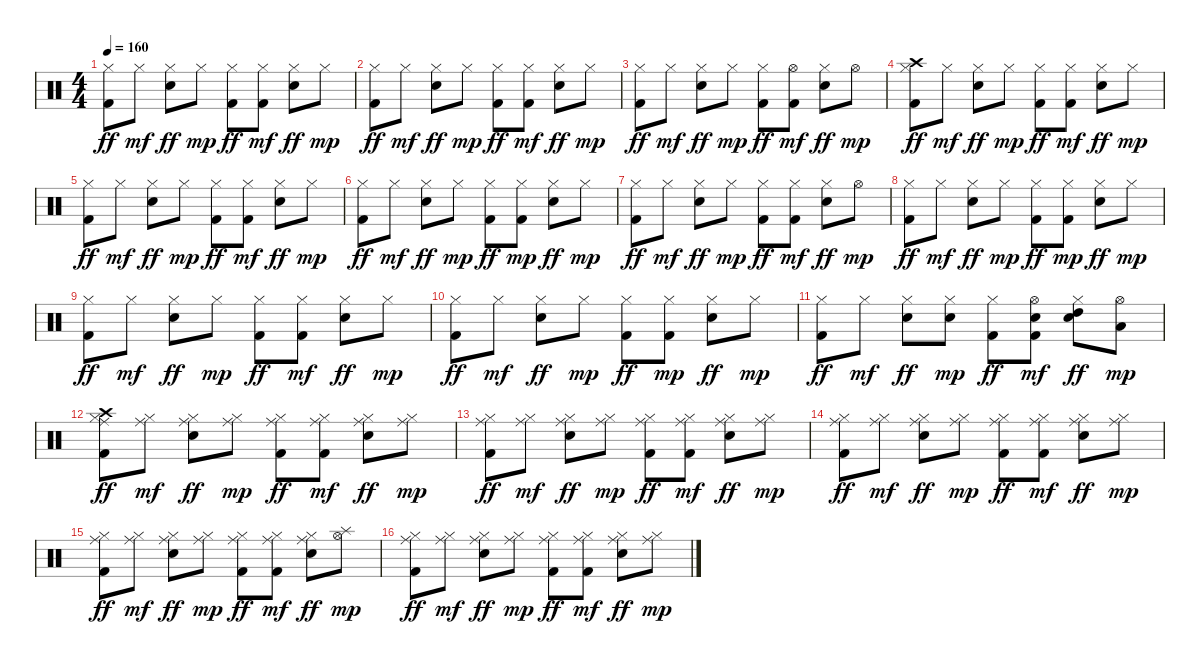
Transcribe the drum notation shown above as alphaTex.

\track "" {instrument percussion}
\staff {score}
\articulation defaults
\ts (4 4)
\tempo 160
\clef neutral
\ks c
("Hi-Hat (closed)" "Kick (hit) 2").8{dy ff} "Hi-Hat (closed)".8{dy mf} ("Snare (hit) 2" "Hi-Hat (closed)").8{dy ff} "Hi-Hat (closed)".8{dy mp} ("Hi-Hat (closed)" "Kick (hit) 2").8{dy ff} ("Hi-Hat (closed)" "Kick (hit) 2").8{dy mf} ("Hi-Hat (closed)" "Snare (hit) 2").8{dy ff} "Hi-Hat (closed)".8{dy mp} |
("Kick (hit) 2" "Hi-Hat (closed)").8{dy ff} "Hi-Hat (closed)".8{dy mf} ("Snare (hit) 2" "Hi-Hat (closed)").8{dy ff} "Hi-Hat (closed)".8{dy mp} ("Hi-Hat (closed)" "Kick (hit) 2").8{dy ff} ("Hi-Hat (closed)" "Kick (hit) 2").8{dy mf} ("Hi-Hat (closed)" "Snare (hit) 2").8{dy ff} "Hi-Hat (closed)".8{dy mp} |
("Hi-Hat (closed)" "Kick (hit) 2").8{dy ff} "Hi-Hat (closed)".8{dy mf} ("Snare (hit) 2" "Hi-Hat (closed)").8{dy ff} "Hi-Hat (closed)".8{dy mp} ("Hi-Hat (closed)" "Kick (hit) 2").8{dy ff} ("Hi-Hat (open)" "Kick (hit) 2").8{dy mf} ("Hi-Hat (closed)" "Snare (hit) 2").8{dy ff} "Hi-Hat (open)".8{dy mp} |
("Kick (hit) 2" "Hi-Hat (closed)" "Crash high (hit)").8{dy ff} "Hi-Hat (closed)".8{dy mf} ("Snare (hit) 2" "Hi-Hat (closed)").8{dy ff} "Hi-Hat (closed)".8{dy mp} ("Kick (hit) 2" "Hi-Hat (closed)").8{dy ff} ("Hi-Hat (closed)" "Kick (hit) 2").8{dy mf} ("Snare (hit) 2" "Hi-Hat (closed)").8{dy ff} "Hi-Hat (closed)".8{dy mp} |
("Hi-Hat (closed)" "Kick (hit) 2").8{dy ff} "Hi-Hat (closed)".8{dy mf} ("Snare (hit) 2" "Hi-Hat (closed)").8{dy ff} "Hi-Hat (closed)".8{dy mp} ("Hi-Hat (closed)" "Kick (hit) 2").8{dy ff} ("Hi-Hat (closed)" "Kick (hit) 2").8{dy mf} ("Snare (hit) 2" "Hi-Hat (closed)").8{dy ff} "Hi-Hat (closed)".8{dy mp} |
("Kick (hit) 2" "Hi-Hat (closed)").8{dy ff} "Hi-Hat (closed)".8{dy mf} ("Snare (hit) 2" "Hi-Hat (closed)").8{dy ff} "Hi-Hat (closed)".8{dy mp} ("Hi-Hat (closed)" "Kick (hit) 2").8{dy ff} ("Kick (hit) 2" "Hi-Hat (closed)").8{dy mp} ("Snare (hit) 2" "Hi-Hat (closed)").8{dy ff} "Hi-Hat (closed)".8{dy mp} |
("Hi-Hat (closed)" "Kick (hit) 2").8{dy ff} "Hi-Hat (closed)".8{dy mf} ("Snare (hit) 2" "Hi-Hat (closed)").8{dy ff} "Hi-Hat (closed)".8{dy mp} ("Hi-Hat (closed)" "Kick (hit) 2").8{dy ff} ("Hi-Hat (closed)" "Kick (hit) 2").8{dy mf} ("Hi-Hat (closed)" "Snare (hit) 2").8{dy ff} "Hi-Hat (open)".8{dy mp} |
("Kick (hit) 2" "Hi-Hat (closed)").8{dy ff} "Hi-Hat (closed)".8{dy mf} ("Snare (hit) 2" "Hi-Hat (closed)").8{dy ff} "Hi-Hat (closed)".8{dy mp} ("Kick (hit) 2" "Hi-Hat (closed)").8{dy ff} ("Kick (hit) 2" "Hi-Hat (closed)").8{dy mp} ("Snare (hit) 2" "Hi-Hat (closed)").8{dy ff} "Hi-Hat (closed)".8{dy mp} |
("Hi-Hat (closed)" "Kick (hit) 2").8{dy ff} "Hi-Hat (closed)".8{dy mf} ("Snare (hit) 2" "Hi-Hat (closed)").8{dy ff} "Hi-Hat (closed)".8{dy mp} ("Hi-Hat (closed)" "Kick (hit) 2").8{dy ff} ("Hi-Hat (closed)" "Kick (hit) 2").8{dy mf} ("Hi-Hat (closed)" "Snare (hit) 2").8{dy ff} "Hi-Hat (closed)".8{dy mp} |
("Hi-Hat (closed)" "Kick (hit) 2").8{dy ff} "Hi-Hat (closed)".8{dy mf} ("Hi-Hat (closed)" "Snare (hit) 2").8{dy ff} "Hi-Hat (closed)".8{dy mp} ("Hi-Hat (closed)" "Kick (hit) 2").8{dy ff} ("Kick (hit) 2" "Hi-Hat (closed)").8{dy mp} ("Hi-Hat (closed)" "Snare (hit) 2").8{dy ff} "Hi-Hat (closed)".8{dy mp} |
("Hi-Hat (closed)" "Kick (hit) 2").8{dy ff} "Hi-Hat (closed)".8{dy mf} ("Snare (hit) 2" "Hi-Hat (closed)").8{dy ff} ("Snare (hit) 2" "Hi-Hat (closed)").8{dy mp} ("Hi-Hat (closed)" "Kick (hit) 2").8{dy ff} ("Hi-Hat (open)" "Snare (hit) 2" "Kick (hit) 2").8{dy mf} ("High Tom (hit)" "Hi-Hat (closed)" "Snare (hit) 2").8{dy ff} ("Hi-Hat (open)" "Low Tom (hit)").8{dy mp} |
("Ride (middle)" "Crash high (hit)" "Hi-Hat (closed)" "Kick (hit) 2").8{dy ff} ("Hi-Hat (closed)" "Ride (middle)").8{dy mf} ("Snare (hit) 2" "Hi-Hat (closed)" "Ride (middle)").8{dy ff} ("Hi-Hat (closed)" "Ride (middle)").8{dy mp} ("Ride (middle)" "Hi-Hat (closed)" "Kick (hit) 2").8{dy ff} ("Hi-Hat (closed)" "Ride (middle)" "Kick (hit) 2").8{dy mf} ("Ride (middle)" "Snare (hit) 2" "Hi-Hat (closed)").8{dy ff} ("Ride (middle)" "Hi-Hat (closed)").8{dy mp} |
("Hi-Hat (closed)" "Ride (middle)" "Kick (hit) 2").8{dy ff} ("Hi-Hat (closed)" "Ride (middle)").8{dy mf} ("Snare (hit) 2" "Hi-Hat (closed)" "Ride (middle)").8{dy ff} ("Ride (middle)" "Hi-Hat (closed)").8{dy mp} ("Ride (middle)" "Hi-Hat (closed)" "Kick (hit) 2").8{dy ff} ("Ride (middle)" "Hi-Hat (closed)" "Kick (hit) 2").8{dy mf} ("Ride (middle)" "Hi-Hat (closed)" "Snare (hit) 2").8{dy ff} ("Hi-Hat (closed)" "Ride (middle)").8{dy mp} |
("Kick (hit) 2" "Ride (middle)" "Hi-Hat (closed)").8{dy ff} ("Ride (middle)" "Hi-Hat (closed)").8{dy mf} ("Snare (hit) 2" "Hi-Hat (closed)" "Ride (middle)").8{dy ff} ("Hi-Hat (closed)" "Ride (middle)").8{dy mp} ("Hi-Hat (closed)" "Ride (middle)" "Kick (hit) 2").8{dy ff} ("Ride (middle)" "Hi-Hat (closed)" "Kick (hit) 2").8{dy mf} ("Ride (middle)" "Snare (hit) 2" "Hi-Hat (closed)").8{dy ff} ("Hi-Hat (closed)" "Ride (middle)").8{dy mp} |
("Hi-Hat (closed)" "Ride (middle)" "Kick (hit) 2").8{dy ff} ("Ride (middle)" "Hi-Hat (closed)").8{dy mf} ("Snare (hit) 2" "Ride (middle)" "Hi-Hat (closed)").8{dy ff} ("Ride (middle)" "Hi-Hat (closed)").8{dy mp} ("Ride (middle)" "Hi-Hat (closed)" "Kick (hit) 2").8{dy ff} ("Hi-Hat (closed)" "Ride (middle)" "Kick (hit) 2").8{dy mf} ("Ride (middle)" "Snare (hit) 2" "Hi-Hat (closed)").8{dy ff} ("Splash (hit)" "Hi-Hat (open)").8{dy mp} |
("Hi-Hat (closed)" "Kick (hit) 2" "Ride (middle)").8{dy ff} ("Hi-Hat (closed)" "Ride (middle)").8{dy mf} ("Ride (middle)" "Hi-Hat (closed)" "Snare (hit) 2").8{dy ff} ("Ride (middle)" "Hi-Hat (closed)").8{dy mp} ("Ride (middle)" "Kick (hit) 2" "Hi-Hat (closed)").8{dy ff} ("Hi-Hat (closed)" "Ride (middle)" "Kick (hit) 2").8{dy mf} ("Ride (middle)" "Hi-Hat (closed)" "Snare (hit) 2").8{dy ff} ("Hi-Hat (closed)" "Ride (middle)").8{dy mp}
